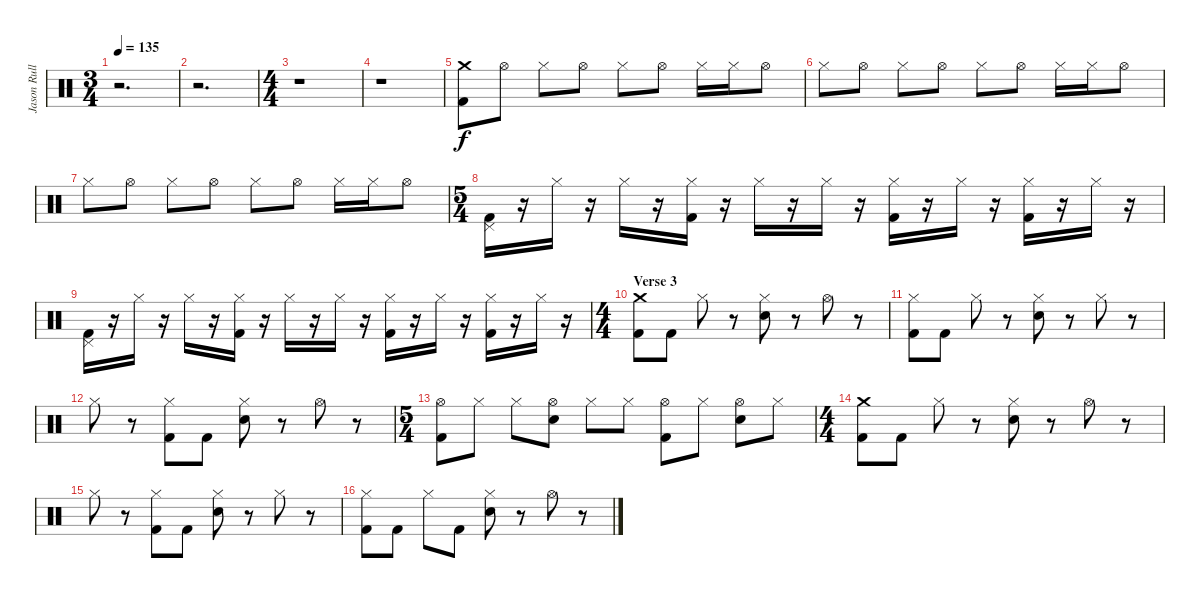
\track ("Jason Rullo" "Jason Rull") {instrument percussion}
\staff {score}
\articulation defaults
\ts (3 4)
\tempo 135
\clef neutral
\ks c
r.2{d dy f} |
r.2{d} |
\ts (4 4)
r.1 |
r.1 |
("Crash medium (hit)" "Kick (hit) 2").8{volume 15 balance 8} "Hi-Hat (open)".8 "Hi-Hat (closed)".8 "Hi-Hat (open)".8 "Hi-Hat (closed)".8 "Hi-Hat (open)".8 "Hi-Hat (closed)".16 "Hi-Hat (closed)".16 "Hi-Hat (open)".8 |
"Hi-Hat (closed)".8{volume 15 balance 8} "Hi-Hat (open)".8 "Hi-Hat (closed)".8 "Hi-Hat (open)".8 "Hi-Hat (closed)".8 "Hi-Hat (open)".8 "Hi-Hat (closed)".16 "Hi-Hat (closed)".16 "Hi-Hat (open)".8 |
"Hi-Hat (closed)".8{volume 15 balance 8} "Hi-Hat (open)".8 "Hi-Hat (closed)".8 "Hi-Hat (open)".8 "Hi-Hat (closed)".8 "Hi-Hat (open)".8 "Hi-Hat (closed)".16 "Hi-Hat (closed)".16 "Hi-Hat (open)".8 |
\ts (5 4)
("Pedal Hi-Hat (hit)" "Kick (hit) 2").16 r.16 "Hi-Hat (closed)".16 r.16 "Hi-Hat (closed)".16 r.16 ("Hi-Hat (closed)" "Kick (hit) 2").16 r.16 "Hi-Hat (closed)".16 r.16 "Hi-Hat (closed)".16 r.16 ("Hi-Hat (closed)" "Kick (hit) 2").16 r.16 "Hi-Hat (closed)".16 r.16 ("Hi-Hat (closed)" "Kick (hit) 2").16 r.16 "Hi-Hat (closed)".16 r.16 |
("Pedal Hi-Hat (hit)" "Kick (hit) 2").16 r.16 "Hi-Hat (closed)".16 r.16 "Hi-Hat (closed)".16 r.16 ("Hi-Hat (closed)" "Kick (hit) 2").16 r.16 "Hi-Hat (closed)".16 r.16 "Hi-Hat (closed)".16 r.16 ("Hi-Hat (closed)" "Kick (hit) 2").16 r.16 "Hi-Hat (closed)".16 r.16 ("Hi-Hat (closed)" "Kick (hit) 2").16 r.16 "Hi-Hat (closed)".16 r.16 |
\ts (4 4)
\section ("" "Verse 3")
("Crash medium (hit)" "Kick (hit) 2").8 "Kick (hit) 2".8 "Hi-Hat (closed)".8 r.8 ("Hi-Hat (closed)" "Electric Snare (hit)").8 r.8 "Hi-Hat (open)".8 r.8 |
("Hi-Hat (closed)" "Kick (hit) 2").8 "Kick (hit) 2".8 "Hi-Hat (closed)".8 r.8 ("Hi-Hat (closed)" "Electric Snare (hit)").8 r.8 "Hi-Hat (closed)".8 r.8 |
"Hi-Hat (closed)".8 r.8 ("Hi-Hat (closed)" "Kick (hit) 2").8 "Kick (hit) 2".8 ("Hi-Hat (closed)" "Electric Snare (hit)").8 r.8 "Hi-Hat (open)".8 r.8 |
\ts (5 4)
("Hi-Hat (open)" "Kick (hit) 2").8 "Hi-Hat (closed)".8 "Hi-Hat (closed)".8 ("Hi-Hat (open)" "Electric Snare (hit)").8 "Hi-Hat (closed)".8 "Hi-Hat (closed)".8 ("Hi-Hat (open)" "Kick (hit) 2").8 "Hi-Hat (closed)".8 ("Hi-Hat (open)" "Electric Snare (hit)").8 "Hi-Hat (closed)".8 |
\ts (4 4)
("Crash medium (hit)" "Kick (hit) 2").8 "Kick (hit) 2".8 "Hi-Hat (closed)".8 r.8 ("Hi-Hat (closed)" "Electric Snare (hit)").8 r.8 "Hi-Hat (open)".8 r.8 |
"Hi-Hat (closed)".8 r.8 ("Kick (hit) 2" "Hi-Hat (closed)").8 "Kick (hit) 2".8 ("Hi-Hat (closed)" "Electric Snare (hit)").8 r.8 "Hi-Hat (closed)".8 r.8 |
("Kick (hit) 2" "Hi-Hat (closed)").8 "Kick (hit) 2".8 "Hi-Hat (closed)".8 "Kick (hit) 2".8 ("Hi-Hat (closed)" "Electric Snare (hit)").8 r.8 "Hi-Hat (open)".8 r.8
